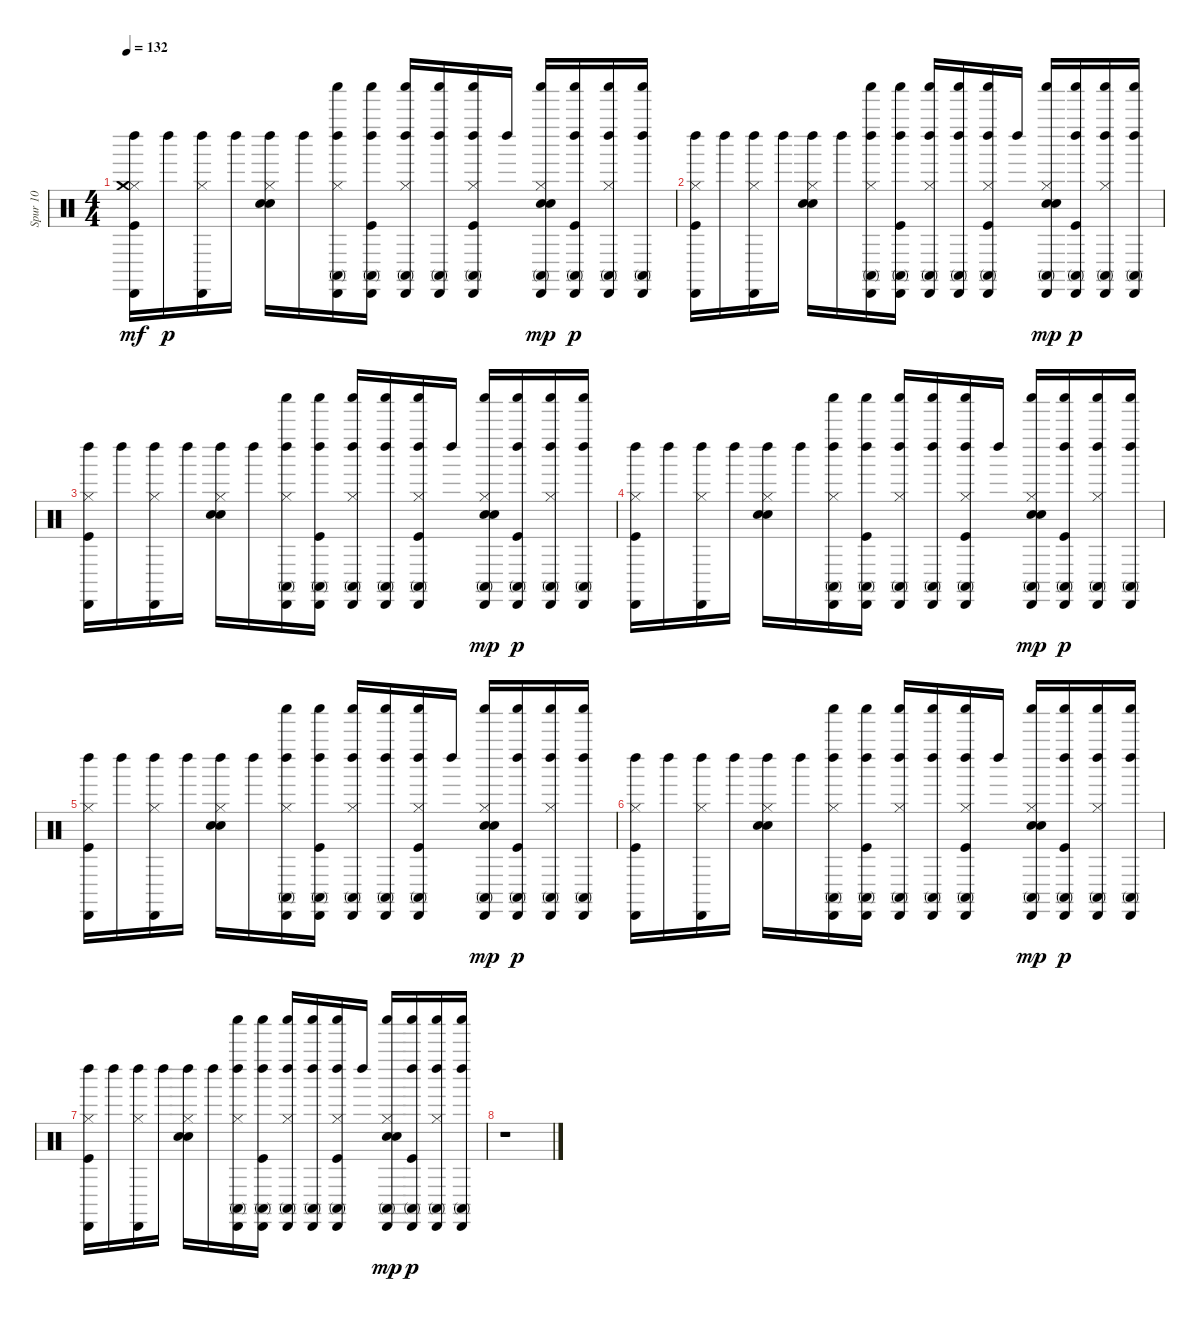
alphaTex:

\track ("Spur 10" "Spur 10") {instrument percussion}
\staff {score}
\articulation defaults
\ts (4 4)
\tempo 132
\clef neutral
\ks c
("Kick (hit)" "Hi-Hat (closed)" "Cabasa (hit)" "Left Maraca (hit)" "Crash medium (hit)").16{dy mf} "Left Maraca (hit)".16{dy p} ("Hi-Hat (closed)" "Cabasa (hit)" "Left Maraca (hit)").16 "Left Maraca (hit)".16 ("Hi-Hat (closed)" "Snare (hit) 2" "Hand Clap (hit)" "Left Maraca (hit)").16 "Left Maraca (hit)".16 ("Shaker (hit)" "Hi-Hat (closed)" "Conga high (mute)" "Cabasa (hit)" "Left Maraca (hit)").16 ("Shaker (hit)" "Kick (hit)" "Conga high (mute)" "Cabasa (hit)" "Left Maraca (hit)").16 ("Shaker (hit)" "Hi-Hat (closed)" "Conga high (mute)" "Cabasa (hit)" "Left Maraca (hit)").16 ("Shaker (hit)" "Conga high (mute)" "Cabasa (hit)" "Left Maraca (hit)").16 ("Shaker (hit)" "Kick (hit)" "Hi-Hat (closed)" "Conga high (mute)" "Cabasa (hit)" "Left Maraca (hit)").16 "Left Maraca (hit)".16 ("Shaker (hit)" "Hi-Hat (closed)" "Snare (hit) 2" "Conga high (mute)" "Cabasa (hit)" "Hand Clap (hit)").16{dy mp} ("Shaker (hit)" "Kick (hit)" "Conga high (mute)" "Cabasa (hit)" "Left Maraca (hit)").16{dy p} ("Shaker (hit)" "Hi-Hat (closed)" "Conga high (mute)" "Cabasa (hit)" "Left Maraca (hit)").16 ("Shaker (hit)" "Conga high (mute)" "Cabasa (hit)" "Left Maraca (hit)").16 |
("Kick (hit)" "Hi-Hat (closed)" "Cabasa (hit)" "Left Maraca (hit)").16 "Left Maraca (hit)".16 ("Hi-Hat (closed)" "Cabasa (hit)" "Left Maraca (hit)").16 "Left Maraca (hit)".16 ("Hi-Hat (closed)" "Snare (hit) 2" "Hand Clap (hit)" "Left Maraca (hit)").16 "Left Maraca (hit)".16 ("Shaker (hit)" "Hi-Hat (closed)" "Conga high (mute)" "Cabasa (hit)" "Left Maraca (hit)").16 ("Shaker (hit)" "Kick (hit)" "Conga high (mute)" "Cabasa (hit)" "Left Maraca (hit)").16 ("Shaker (hit)" "Hi-Hat (closed)" "Conga high (mute)" "Cabasa (hit)" "Left Maraca (hit)").16 ("Shaker (hit)" "Conga high (mute)" "Cabasa (hit)" "Left Maraca (hit)").16 ("Shaker (hit)" "Kick (hit)" "Hi-Hat (closed)" "Conga high (mute)" "Cabasa (hit)" "Left Maraca (hit)").16 "Left Maraca (hit)".16 ("Shaker (hit)" "Hi-Hat (closed)" "Snare (hit) 2" "Conga high (mute)" "Cabasa (hit)" "Hand Clap (hit)").16{dy mp} ("Shaker (hit)" "Kick (hit)" "Conga high (mute)" "Cabasa (hit)" "Left Maraca (hit)").16{dy p} ("Shaker (hit)" "Hi-Hat (closed)" "Conga high (mute)" "Cabasa (hit)" "Left Maraca (hit)").16 ("Shaker (hit)" "Conga high (mute)" "Cabasa (hit)" "Left Maraca (hit)").16 |
("Kick (hit)" "Hi-Hat (closed)" "Cabasa (hit)" "Left Maraca (hit)").16 "Left Maraca (hit)".16 ("Hi-Hat (closed)" "Cabasa (hit)" "Left Maraca (hit)").16 "Left Maraca (hit)".16 ("Hi-Hat (closed)" "Snare (hit) 2" "Hand Clap (hit)" "Left Maraca (hit)").16 "Left Maraca (hit)".16 ("Shaker (hit)" "Hi-Hat (closed)" "Conga high (mute)" "Cabasa (hit)" "Left Maraca (hit)").16 ("Shaker (hit)" "Kick (hit)" "Conga high (mute)" "Cabasa (hit)" "Left Maraca (hit)").16 ("Shaker (hit)" "Hi-Hat (closed)" "Conga high (mute)" "Cabasa (hit)" "Left Maraca (hit)").16 ("Shaker (hit)" "Conga high (mute)" "Cabasa (hit)" "Left Maraca (hit)").16 ("Shaker (hit)" "Kick (hit)" "Hi-Hat (closed)" "Conga high (mute)" "Cabasa (hit)" "Left Maraca (hit)").16 "Left Maraca (hit)".16 ("Shaker (hit)" "Hi-Hat (closed)" "Snare (hit) 2" "Conga high (mute)" "Cabasa (hit)" "Hand Clap (hit)").16{dy mp} ("Shaker (hit)" "Kick (hit)" "Conga high (mute)" "Cabasa (hit)" "Left Maraca (hit)").16{dy p} ("Shaker (hit)" "Hi-Hat (closed)" "Conga high (mute)" "Cabasa (hit)" "Left Maraca (hit)").16 ("Shaker (hit)" "Conga high (mute)" "Cabasa (hit)" "Left Maraca (hit)").16 |
("Kick (hit)" "Hi-Hat (closed)" "Cabasa (hit)" "Left Maraca (hit)").16 "Left Maraca (hit)".16 ("Hi-Hat (closed)" "Cabasa (hit)" "Left Maraca (hit)").16 "Left Maraca (hit)".16 ("Hi-Hat (closed)" "Snare (hit) 2" "Hand Clap (hit)" "Left Maraca (hit)").16 "Left Maraca (hit)".16 ("Shaker (hit)" "Hi-Hat (closed)" "Cabasa (hit)" "Conga high (mute)" "Left Maraca (hit)").16 ("Shaker (hit)" "Kick (hit)" "Cabasa (hit)" "Conga high (mute)" "Left Maraca (hit)").16 ("Shaker (hit)" "Hi-Hat (closed)" "Cabasa (hit)" "Conga high (mute)" "Left Maraca (hit)").16 ("Shaker (hit)" "Cabasa (hit)" "Conga high (mute)" "Left Maraca (hit)").16 ("Shaker (hit)" "Kick (hit)" "Hi-Hat (closed)" "Cabasa (hit)" "Conga high (mute)" "Left Maraca (hit)").16 "Left Maraca (hit)".16 ("Shaker (hit)" "Hi-Hat (closed)" "Snare (hit) 2" "Cabasa (hit)" "Conga high (mute)" "Hand Clap (hit)").16{dy mp} ("Shaker (hit)" "Kick (hit)" "Cabasa (hit)" "Conga high (mute)" "Left Maraca (hit)").16{dy p} ("Shaker (hit)" "Hi-Hat (closed)" "Cabasa (hit)" "Conga high (mute)" "Left Maraca (hit)").16 ("Shaker (hit)" "Cabasa (hit)" "Conga high (mute)" "Left Maraca (hit)").16 |
("Kick (hit)" "Hi-Hat (closed)" "Left Maraca (hit)" "Cabasa (hit)").16 "Left Maraca (hit)".16 ("Hi-Hat (closed)" "Left Maraca (hit)" "Cabasa (hit)").16 "Left Maraca (hit)".16 ("Hi-Hat (closed)" "Snare (hit) 2" "Hand Clap (hit)" "Left Maraca (hit)").16 "Left Maraca (hit)".16 ("Shaker (hit)" "Hi-Hat (closed)" "Conga high (mute)" "Cabasa (hit)" "Left Maraca (hit)").16 ("Shaker (hit)" "Kick (hit)" "Conga high (mute)" "Cabasa (hit)" "Left Maraca (hit)").16 ("Shaker (hit)" "Hi-Hat (closed)" "Conga high (mute)" "Cabasa (hit)" "Left Maraca (hit)").16 ("Shaker (hit)" "Conga high (mute)" "Cabasa (hit)" "Left Maraca (hit)").16 ("Shaker (hit)" "Kick (hit)" "Hi-Hat (closed)" "Conga high (mute)" "Cabasa (hit)" "Left Maraca (hit)").16 "Left Maraca (hit)".16 ("Shaker (hit)" "Hi-Hat (closed)" "Snare (hit) 2" "Conga high (mute)" "Cabasa (hit)" "Hand Clap (hit)").16{dy mp} ("Shaker (hit)" "Kick (hit)" "Conga high (mute)" "Cabasa (hit)" "Left Maraca (hit)").16{dy p} ("Shaker (hit)" "Hi-Hat (closed)" "Conga high (mute)" "Cabasa (hit)" "Left Maraca (hit)").16 ("Shaker (hit)" "Conga high (mute)" "Cabasa (hit)" "Left Maraca (hit)").16 |
("Kick (hit)" "Hi-Hat (closed)" "Cabasa (hit)" "Left Maraca (hit)").16 "Left Maraca (hit)".16 ("Hi-Hat (closed)" "Cabasa (hit)" "Left Maraca (hit)").16 "Left Maraca (hit)".16 ("Hi-Hat (closed)" "Snare (hit) 2" "Hand Clap (hit)" "Left Maraca (hit)").16 "Left Maraca (hit)".16 ("Shaker (hit)" "Hi-Hat (closed)" "Cabasa (hit)" "Conga high (mute)" "Left Maraca (hit)").16 ("Shaker (hit)" "Kick (hit)" "Cabasa (hit)" "Conga high (mute)" "Left Maraca (hit)").16 ("Shaker (hit)" "Hi-Hat (closed)" "Cabasa (hit)" "Conga high (mute)" "Left Maraca (hit)").16 ("Shaker (hit)" "Cabasa (hit)" "Conga high (mute)" "Left Maraca (hit)").16 ("Shaker (hit)" "Kick (hit)" "Hi-Hat (closed)" "Cabasa (hit)" "Conga high (mute)" "Left Maraca (hit)").16 "Left Maraca (hit)".16 ("Shaker (hit)" "Hi-Hat (closed)" "Snare (hit) 2" "Cabasa (hit)" "Conga high (mute)" "Hand Clap (hit)").16{dy mp} ("Shaker (hit)" "Kick (hit)" "Cabasa (hit)" "Conga high (mute)" "Left Maraca (hit)").16{dy p} ("Shaker (hit)" "Hi-Hat (closed)" "Cabasa (hit)" "Conga high (mute)" "Left Maraca (hit)").16 ("Shaker (hit)" "Cabasa (hit)" "Conga high (mute)" "Left Maraca (hit)").16 |
("Kick (hit)" "Hi-Hat (closed)" "Left Maraca (hit)" "Cabasa (hit)").16 "Left Maraca (hit)".16 ("Hi-Hat (closed)" "Left Maraca (hit)" "Cabasa (hit)").16 "Left Maraca (hit)".16 ("Hi-Hat (closed)" "Snare (hit) 2" "Hand Clap (hit)" "Left Maraca (hit)").16 "Left Maraca (hit)".16 ("Shaker (hit)" "Hi-Hat (closed)" "Conga high (mute)" "Cabasa (hit)" "Left Maraca (hit)").16 ("Shaker (hit)" "Kick (hit)" "Conga high (mute)" "Cabasa (hit)" "Left Maraca (hit)").16 ("Shaker (hit)" "Hi-Hat (closed)" "Conga high (mute)" "Cabasa (hit)" "Left Maraca (hit)").16 ("Shaker (hit)" "Conga high (mute)" "Cabasa (hit)" "Left Maraca (hit)").16 ("Shaker (hit)" "Kick (hit)" "Hi-Hat (closed)" "Conga high (mute)" "Cabasa (hit)" "Left Maraca (hit)").16 "Left Maraca (hit)".16 ("Shaker (hit)" "Hi-Hat (closed)" "Snare (hit) 2" "Conga high (mute)" "Cabasa (hit)" "Hand Clap (hit)").16{dy mp} ("Shaker (hit)" "Kick (hit)" "Conga high (mute)" "Cabasa (hit)" "Left Maraca (hit)").16{dy p} ("Shaker (hit)" "Hi-Hat (closed)" "Conga high (mute)" "Cabasa (hit)" "Left Maraca (hit)").16 ("Shaker (hit)" "Conga high (mute)" "Cabasa (hit)" "Left Maraca (hit)").16 |
r.1
